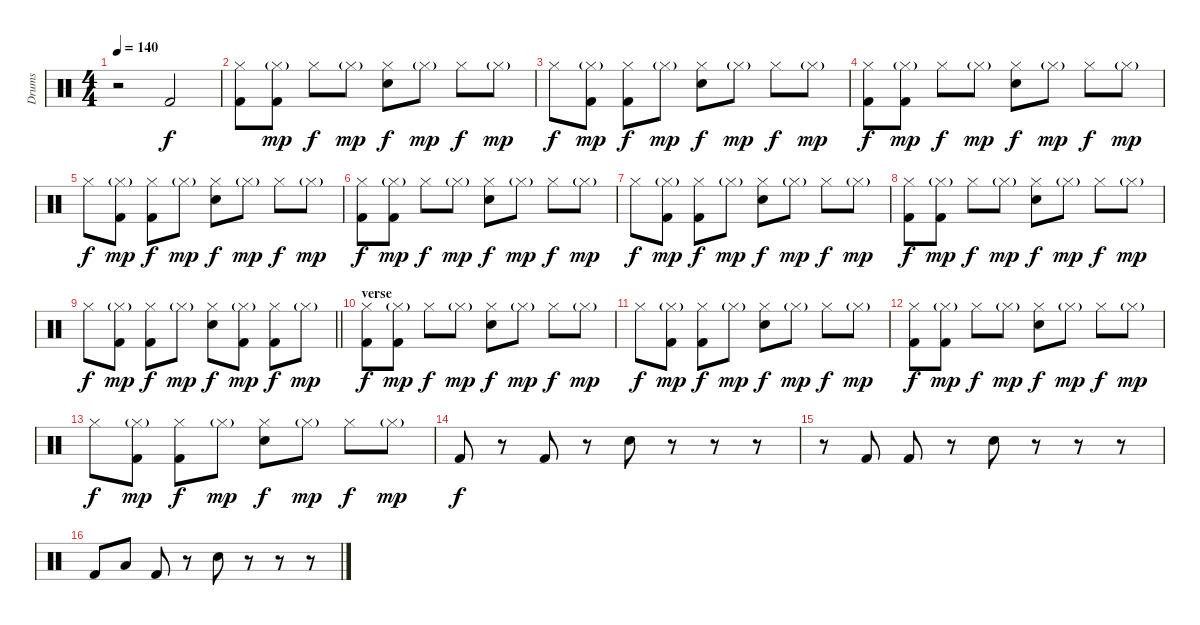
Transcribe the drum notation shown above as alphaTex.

\track ("Drums" "Drums") {instrument percussion}
\staff {score}
\articulation defaults
\ts (4 4)
\tempo 140
\clef neutral
\ks c
r.2{dy mp} "Kick (hit) 2".2{dy f} |
("Hi-Hat (closed)" "Kick (hit) 2").8 ("Hi-Hat (closed)"{g} "Kick (hit) 2").8{dy mp} "Hi-Hat (closed)".8{dy f} "Hi-Hat (closed)"{g}.8{dy mp} ("Hi-Hat (closed)" "Electric Snare (hit)").8{dy f} "Hi-Hat (closed)"{g}.8{dy mp} "Hi-Hat (closed)".8{dy f} "Hi-Hat (closed)"{g}.8{dy mp} |
"Hi-Hat (closed)".8{dy f} ("Hi-Hat (closed)"{g} "Kick (hit) 2").8{dy mp} ("Hi-Hat (closed)" "Kick (hit) 2").8{dy f} "Hi-Hat (closed)"{g}.8{dy mp} ("Hi-Hat (closed)" "Electric Snare (hit)").8{dy f} "Hi-Hat (closed)"{g}.8{dy mp} "Hi-Hat (closed)".8{dy f} "Hi-Hat (closed)"{g}.8{dy mp} |
("Hi-Hat (closed)" "Kick (hit) 2").8{dy f} ("Hi-Hat (closed)"{g} "Kick (hit) 2").8{dy mp} "Hi-Hat (closed)".8{dy f} "Hi-Hat (closed)"{g}.8{dy mp} ("Hi-Hat (closed)" "Electric Snare (hit)").8{dy f} "Hi-Hat (closed)"{g}.8{dy mp} "Hi-Hat (closed)".8{dy f} "Hi-Hat (closed)"{g}.8{dy mp} |
"Hi-Hat (closed)".8{dy f} ("Hi-Hat (closed)"{g} "Kick (hit) 2").8{dy mp} ("Hi-Hat (closed)" "Kick (hit) 2").8{dy f} "Hi-Hat (closed)"{g}.8{dy mp} ("Hi-Hat (closed)" "Electric Snare (hit)").8{dy f} "Hi-Hat (closed)"{g}.8{dy mp} "Hi-Hat (closed)".8{dy f} "Hi-Hat (closed)"{g}.8{dy mp} |
("Hi-Hat (closed)" "Kick (hit) 2").8{dy f} ("Hi-Hat (closed)"{g} "Kick (hit) 2").8{dy mp} "Hi-Hat (closed)".8{dy f} "Hi-Hat (closed)"{g}.8{dy mp} ("Hi-Hat (closed)" "Electric Snare (hit)").8{dy f} "Hi-Hat (closed)"{g}.8{dy mp} "Hi-Hat (closed)".8{dy f} "Hi-Hat (closed)"{g}.8{dy mp} |
"Hi-Hat (closed)".8{dy f} ("Hi-Hat (closed)"{g} "Kick (hit) 2").8{dy mp} ("Hi-Hat (closed)" "Kick (hit) 2").8{dy f} "Hi-Hat (closed)"{g}.8{dy mp} ("Hi-Hat (closed)" "Electric Snare (hit)").8{dy f} "Hi-Hat (closed)"{g}.8{dy mp} "Hi-Hat (closed)".8{dy f} "Hi-Hat (closed)"{g}.8{dy mp} |
("Hi-Hat (closed)" "Kick (hit) 2").8{dy f} ("Hi-Hat (closed)"{g} "Kick (hit) 2").8{dy mp} "Hi-Hat (closed)".8{dy f} "Hi-Hat (closed)"{g}.8{dy mp} ("Hi-Hat (closed)" "Electric Snare (hit)").8{dy f} "Hi-Hat (closed)"{g}.8{dy mp} "Hi-Hat (closed)".8{dy f} "Hi-Hat (closed)"{g}.8{dy mp} |
\barLineRight lightlight "Hi-Hat (closed)".8{dy f}
("Hi-Hat (closed)"{g} "Kick (hit) 2").8{dy mp} ("Hi-Hat (closed)" "Kick (hit) 2").8{dy f} "Hi-Hat (closed)"{g}.8{dy mp} ("Hi-Hat (closed)" "Electric Snare (hit)").8{dy f} ("Hi-Hat (closed)"{g} "Kick (hit) 2").8{dy mp} ("Hi-Hat (closed)" "Kick (hit) 2").8{dy f} "Hi-Hat (closed)"{g}.8{dy mp} |
\section ("" "verse")
("Hi-Hat (closed)" "Kick (hit) 2").8{dy f} ("Hi-Hat (closed)"{g} "Kick (hit) 2").8{dy mp} "Hi-Hat (closed)".8{dy f} "Hi-Hat (closed)"{g}.8{dy mp} ("Hi-Hat (closed)" "Electric Snare (hit)").8{dy f} "Hi-Hat (closed)"{g}.8{dy mp} "Hi-Hat (closed)".8{dy f} "Hi-Hat (closed)"{g}.8{dy mp} |
"Hi-Hat (closed)".8{dy f} ("Hi-Hat (closed)"{g} "Kick (hit) 2").8{dy mp} ("Hi-Hat (closed)" "Kick (hit) 2").8{dy f} "Hi-Hat (closed)"{g}.8{dy mp} ("Hi-Hat (closed)" "Electric Snare (hit)").8{dy f} "Hi-Hat (closed)"{g}.8{dy mp} "Hi-Hat (closed)".8{dy f} "Hi-Hat (closed)"{g}.8{dy mp} |
("Hi-Hat (closed)" "Kick (hit) 2").8{dy f} ("Hi-Hat (closed)"{g} "Kick (hit) 2").8{dy mp} "Hi-Hat (closed)".8{dy f} "Hi-Hat (closed)"{g}.8{dy mp} ("Hi-Hat (closed)" "Electric Snare (hit)").8{dy f} "Hi-Hat (closed)"{g}.8{dy mp} "Hi-Hat (closed)".8{dy f} "Hi-Hat (closed)"{g}.8{dy mp} |
"Hi-Hat (closed)".8{dy f} ("Hi-Hat (closed)"{g} "Kick (hit) 2").8{dy mp} ("Hi-Hat (closed)" "Kick (hit) 2").8{dy f} "Hi-Hat (closed)"{g}.8{dy mp} ("Hi-Hat (closed)" "Electric Snare (hit)").8{dy f} "Hi-Hat (closed)"{g}.8{dy mp} "Hi-Hat (closed)".8{dy f} "Hi-Hat (closed)"{g}.8{dy mp} |
"Kick (hit) 2".8{dy f} r.8 "Kick (hit) 2".8 r.8 "Electric Snare (hit)".8 r.8 r.8 r.8 |
r.8 "Kick (hit) 2".8 "Kick (hit) 2".8 r.8 "Electric Snare (hit)".8 r.8 r.8 r.8 |
"Kick (hit) 2".8 "Low Floor Tom (hit)".8 "Kick (hit) 2".8 r.8 "Electric Snare (hit)".8 r.8 r.8 r.8
